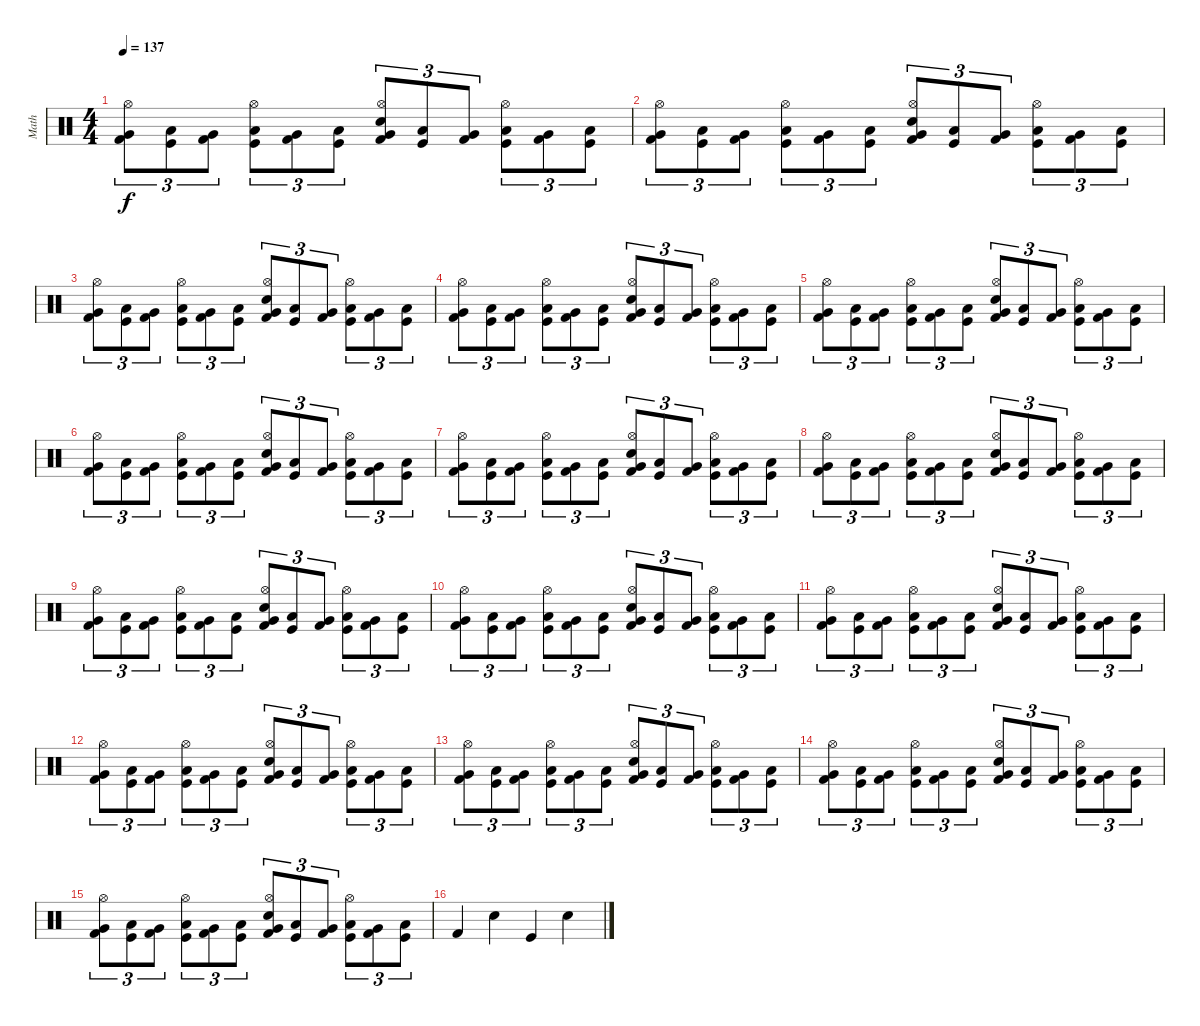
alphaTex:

\track ("Math" "Math") {instrument percussion}
\staff {score}
\articulation defaults
\ts (4 4)
\tempo 137
\clef neutral
\ks c
("Kick (hit) 2" "Very Low Tom (hit)" "Hi-Hat (open)").8{tu (3 2) dy f} ("Kick (hit)" "Low Tom (hit)").8{tu (3 2)} ("Kick (hit) 2" "Very Low Tom (hit)").8{tu (3 2)} ("Kick (hit)" "Low Tom (hit)" "Hi-Hat (open)").8{tu (3 2)} ("Kick (hit) 2" "Very Low Tom (hit)").8{tu (3 2)} ("Kick (hit)" "Low Tom (hit)").8{tu (3 2)} ("Kick (hit) 2" "Very Low Tom (hit)" "Snare (hit) 2" "Hi-Hat (open)").8{tu (3 2)} ("Kick (hit)" "Low Tom (hit)").8{tu (3 2)} ("Kick (hit) 2" "Very Low Tom (hit)").8{tu (3 2)} ("Kick (hit)" "Low Tom (hit)" "Hi-Hat (open)").8{tu (3 2)} ("Kick (hit) 2" "Very Low Tom (hit)").8{tu (3 2)} ("Kick (hit)" "Low Tom (hit)").8{tu (3 2)} |
("Kick (hit) 2" "Very Low Tom (hit)" "Hi-Hat (open)").8{tu (3 2)} ("Kick (hit)" "Low Tom (hit)").8{tu (3 2)} ("Kick (hit) 2" "Very Low Tom (hit)").8{tu (3 2)} ("Kick (hit)" "Low Tom (hit)" "Hi-Hat (open)").8{tu (3 2)} ("Kick (hit) 2" "Very Low Tom (hit)").8{tu (3 2)} ("Kick (hit)" "Low Tom (hit)").8{tu (3 2)} ("Kick (hit) 2" "Very Low Tom (hit)" "Snare (hit) 2" "Hi-Hat (open)").8{tu (3 2)} ("Kick (hit)" "Low Tom (hit)").8{tu (3 2)} ("Kick (hit) 2" "Very Low Tom (hit)").8{tu (3 2)} ("Kick (hit)" "Low Tom (hit)" "Hi-Hat (open)").8{tu (3 2)} ("Kick (hit) 2" "Very Low Tom (hit)").8{tu (3 2)} ("Kick (hit)" "Low Tom (hit)").8{tu (3 2)} |
("Kick (hit) 2" "Very Low Tom (hit)" "Hi-Hat (open)").8{tu (3 2)} ("Kick (hit)" "Low Tom (hit)").8{tu (3 2)} ("Kick (hit) 2" "Very Low Tom (hit)").8{tu (3 2)} ("Kick (hit)" "Low Tom (hit)" "Hi-Hat (open)").8{tu (3 2)} ("Kick (hit) 2" "Very Low Tom (hit)").8{tu (3 2)} ("Kick (hit)" "Low Tom (hit)").8{tu (3 2)} ("Kick (hit) 2" "Very Low Tom (hit)" "Snare (hit) 2" "Hi-Hat (open)").8{tu (3 2)} ("Kick (hit)" "Low Tom (hit)").8{tu (3 2)} ("Kick (hit) 2" "Very Low Tom (hit)").8{tu (3 2)} ("Kick (hit)" "Low Tom (hit)" "Hi-Hat (open)").8{tu (3 2)} ("Kick (hit) 2" "Very Low Tom (hit)").8{tu (3 2)} ("Kick (hit)" "Low Tom (hit)").8{tu (3 2)} |
("Kick (hit) 2" "Very Low Tom (hit)" "Hi-Hat (open)").8{tu (3 2)} ("Kick (hit)" "Low Tom (hit)").8{tu (3 2)} ("Kick (hit) 2" "Very Low Tom (hit)").8{tu (3 2)} ("Kick (hit)" "Low Tom (hit)" "Hi-Hat (open)").8{tu (3 2)} ("Kick (hit) 2" "Very Low Tom (hit)").8{tu (3 2)} ("Kick (hit)" "Low Tom (hit)").8{tu (3 2)} ("Kick (hit) 2" "Very Low Tom (hit)" "Snare (hit) 2" "Hi-Hat (open)").8{tu (3 2)} ("Kick (hit)" "Low Tom (hit)").8{tu (3 2)} ("Kick (hit) 2" "Very Low Tom (hit)").8{tu (3 2)} ("Kick (hit)" "Low Tom (hit)" "Hi-Hat (open)").8{tu (3 2)} ("Kick (hit) 2" "Very Low Tom (hit)").8{tu (3 2)} ("Kick (hit)" "Low Tom (hit)").8{tu (3 2)} |
("Kick (hit) 2" "Very Low Tom (hit)" "Hi-Hat (open)").8{tu (3 2)} ("Kick (hit)" "Low Tom (hit)").8{tu (3 2)} ("Kick (hit) 2" "Very Low Tom (hit)").8{tu (3 2)} ("Kick (hit)" "Low Tom (hit)" "Hi-Hat (open)").8{tu (3 2)} ("Kick (hit) 2" "Very Low Tom (hit)").8{tu (3 2)} ("Kick (hit)" "Low Tom (hit)").8{tu (3 2)} ("Kick (hit) 2" "Very Low Tom (hit)" "Snare (hit) 2" "Hi-Hat (open)").8{tu (3 2)} ("Kick (hit)" "Low Tom (hit)").8{tu (3 2)} ("Kick (hit) 2" "Very Low Tom (hit)").8{tu (3 2)} ("Kick (hit)" "Low Tom (hit)" "Hi-Hat (open)").8{tu (3 2)} ("Kick (hit) 2" "Very Low Tom (hit)").8{tu (3 2)} ("Kick (hit)" "Low Tom (hit)").8{tu (3 2)} |
("Kick (hit) 2" "Very Low Tom (hit)" "Hi-Hat (open)").8{tu (3 2)} ("Kick (hit)" "Low Tom (hit)").8{tu (3 2)} ("Kick (hit) 2" "Very Low Tom (hit)").8{tu (3 2)} ("Kick (hit)" "Low Tom (hit)" "Hi-Hat (open)").8{tu (3 2)} ("Kick (hit) 2" "Very Low Tom (hit)").8{tu (3 2)} ("Kick (hit)" "Low Tom (hit)").8{tu (3 2)} ("Kick (hit) 2" "Very Low Tom (hit)" "Snare (hit) 2" "Hi-Hat (open)").8{tu (3 2)} ("Kick (hit)" "Low Tom (hit)").8{tu (3 2)} ("Kick (hit) 2" "Very Low Tom (hit)").8{tu (3 2)} ("Kick (hit)" "Low Tom (hit)" "Hi-Hat (open)").8{tu (3 2)} ("Kick (hit) 2" "Very Low Tom (hit)").8{tu (3 2)} ("Kick (hit)" "Low Tom (hit)").8{tu (3 2)} |
("Kick (hit) 2" "Very Low Tom (hit)" "Hi-Hat (open)").8{tu (3 2)} ("Kick (hit)" "Low Tom (hit)").8{tu (3 2)} ("Kick (hit) 2" "Very Low Tom (hit)").8{tu (3 2)} ("Kick (hit)" "Low Tom (hit)" "Hi-Hat (open)").8{tu (3 2)} ("Kick (hit) 2" "Very Low Tom (hit)").8{tu (3 2)} ("Kick (hit)" "Low Tom (hit)").8{tu (3 2)} ("Kick (hit) 2" "Very Low Tom (hit)" "Snare (hit) 2" "Hi-Hat (open)").8{tu (3 2)} ("Kick (hit)" "Low Tom (hit)").8{tu (3 2)} ("Kick (hit) 2" "Very Low Tom (hit)").8{tu (3 2)} ("Kick (hit)" "Low Tom (hit)" "Hi-Hat (open)").8{tu (3 2)} ("Kick (hit) 2" "Very Low Tom (hit)").8{tu (3 2)} ("Kick (hit)" "Low Tom (hit)").8{tu (3 2)} |
("Kick (hit) 2" "Very Low Tom (hit)" "Hi-Hat (open)").8{tu (3 2)} ("Kick (hit)" "Low Tom (hit)").8{tu (3 2)} ("Kick (hit) 2" "Very Low Tom (hit)").8{tu (3 2)} ("Kick (hit)" "Low Tom (hit)" "Hi-Hat (open)").8{tu (3 2)} ("Kick (hit) 2" "Very Low Tom (hit)").8{tu (3 2)} ("Kick (hit)" "Low Tom (hit)").8{tu (3 2)} ("Kick (hit) 2" "Very Low Tom (hit)" "Snare (hit) 2" "Hi-Hat (open)").8{tu (3 2)} ("Kick (hit)" "Low Tom (hit)").8{tu (3 2)} ("Kick (hit) 2" "Very Low Tom (hit)").8{tu (3 2)} ("Kick (hit)" "Low Tom (hit)" "Hi-Hat (open)").8{tu (3 2)} ("Kick (hit) 2" "Very Low Tom (hit)").8{tu (3 2)} ("Kick (hit)" "Low Tom (hit)").8{tu (3 2)} |
("Kick (hit) 2" "Very Low Tom (hit)" "Hi-Hat (open)").8{tu (3 2)} ("Kick (hit)" "Low Tom (hit)").8{tu (3 2)} ("Kick (hit) 2" "Very Low Tom (hit)").8{tu (3 2)} ("Kick (hit)" "Low Tom (hit)" "Hi-Hat (open)").8{tu (3 2)} ("Kick (hit) 2" "Very Low Tom (hit)").8{tu (3 2)} ("Kick (hit)" "Low Tom (hit)").8{tu (3 2)} ("Kick (hit) 2" "Very Low Tom (hit)" "Snare (hit) 2" "Hi-Hat (open)").8{tu (3 2)} ("Kick (hit)" "Low Tom (hit)").8{tu (3 2)} ("Kick (hit) 2" "Very Low Tom (hit)").8{tu (3 2)} ("Kick (hit)" "Low Tom (hit)" "Hi-Hat (open)").8{tu (3 2)} ("Kick (hit) 2" "Very Low Tom (hit)").8{tu (3 2)} ("Kick (hit)" "Low Tom (hit)").8{tu (3 2)} |
("Kick (hit) 2" "Very Low Tom (hit)" "Hi-Hat (open)").8{tu (3 2)} ("Kick (hit)" "Low Tom (hit)").8{tu (3 2)} ("Kick (hit) 2" "Very Low Tom (hit)").8{tu (3 2)} ("Kick (hit)" "Low Tom (hit)" "Hi-Hat (open)").8{tu (3 2)} ("Kick (hit) 2" "Very Low Tom (hit)").8{tu (3 2)} ("Kick (hit)" "Low Tom (hit)").8{tu (3 2)} ("Kick (hit) 2" "Very Low Tom (hit)" "Snare (hit) 2" "Hi-Hat (open)").8{tu (3 2)} ("Kick (hit)" "Low Tom (hit)").8{tu (3 2)} ("Kick (hit) 2" "Very Low Tom (hit)").8{tu (3 2)} ("Kick (hit)" "Low Tom (hit)" "Hi-Hat (open)").8{tu (3 2)} ("Kick (hit) 2" "Very Low Tom (hit)").8{tu (3 2)} ("Kick (hit)" "Low Tom (hit)").8{tu (3 2)} |
("Kick (hit) 2" "Very Low Tom (hit)" "Hi-Hat (open)").8{tu (3 2)} ("Kick (hit)" "Low Tom (hit)").8{tu (3 2)} ("Kick (hit) 2" "Very Low Tom (hit)").8{tu (3 2)} ("Kick (hit)" "Low Tom (hit)" "Hi-Hat (open)").8{tu (3 2)} ("Kick (hit) 2" "Very Low Tom (hit)").8{tu (3 2)} ("Kick (hit)" "Low Tom (hit)").8{tu (3 2)} ("Kick (hit) 2" "Very Low Tom (hit)" "Snare (hit) 2" "Hi-Hat (open)").8{tu (3 2)} ("Kick (hit)" "Low Tom (hit)").8{tu (3 2)} ("Kick (hit) 2" "Very Low Tom (hit)").8{tu (3 2)} ("Kick (hit)" "Low Tom (hit)" "Hi-Hat (open)").8{tu (3 2)} ("Kick (hit) 2" "Very Low Tom (hit)").8{tu (3 2)} ("Kick (hit)" "Low Tom (hit)").8{tu (3 2)} |
("Kick (hit) 2" "Very Low Tom (hit)" "Hi-Hat (open)").8{tu (3 2)} ("Kick (hit)" "Low Tom (hit)").8{tu (3 2)} ("Kick (hit) 2" "Very Low Tom (hit)").8{tu (3 2)} ("Kick (hit)" "Low Tom (hit)" "Hi-Hat (open)").8{tu (3 2)} ("Kick (hit) 2" "Very Low Tom (hit)").8{tu (3 2)} ("Kick (hit)" "Low Tom (hit)").8{tu (3 2)} ("Kick (hit) 2" "Very Low Tom (hit)" "Snare (hit) 2" "Hi-Hat (open)").8{tu (3 2)} ("Kick (hit)" "Low Tom (hit)").8{tu (3 2)} ("Kick (hit) 2" "Very Low Tom (hit)").8{tu (3 2)} ("Kick (hit)" "Low Tom (hit)" "Hi-Hat (open)").8{tu (3 2)} ("Kick (hit) 2" "Very Low Tom (hit)").8{tu (3 2)} ("Kick (hit)" "Low Tom (hit)").8{tu (3 2)} |
("Kick (hit) 2" "Very Low Tom (hit)" "Hi-Hat (open)").8{tu (3 2)} ("Kick (hit)" "Low Tom (hit)").8{tu (3 2)} ("Kick (hit) 2" "Very Low Tom (hit)").8{tu (3 2)} ("Kick (hit)" "Low Tom (hit)" "Hi-Hat (open)").8{tu (3 2)} ("Kick (hit) 2" "Very Low Tom (hit)").8{tu (3 2)} ("Kick (hit)" "Low Tom (hit)").8{tu (3 2)} ("Kick (hit) 2" "Very Low Tom (hit)" "Snare (hit) 2" "Hi-Hat (open)").8{tu (3 2)} ("Kick (hit)" "Low Tom (hit)").8{tu (3 2)} ("Kick (hit) 2" "Very Low Tom (hit)").8{tu (3 2)} ("Kick (hit)" "Low Tom (hit)" "Hi-Hat (open)").8{tu (3 2)} ("Kick (hit) 2" "Very Low Tom (hit)").8{tu (3 2)} ("Kick (hit)" "Low Tom (hit)").8{tu (3 2)} |
("Kick (hit) 2" "Very Low Tom (hit)" "Hi-Hat (open)").8{tu (3 2)} ("Kick (hit)" "Low Tom (hit)").8{tu (3 2)} ("Kick (hit) 2" "Very Low Tom (hit)").8{tu (3 2)} ("Kick (hit)" "Low Tom (hit)" "Hi-Hat (open)").8{tu (3 2)} ("Kick (hit) 2" "Very Low Tom (hit)").8{tu (3 2)} ("Kick (hit)" "Low Tom (hit)").8{tu (3 2)} ("Kick (hit) 2" "Very Low Tom (hit)" "Snare (hit) 2" "Hi-Hat (open)").8{tu (3 2)} ("Kick (hit)" "Low Tom (hit)").8{tu (3 2)} ("Kick (hit) 2" "Very Low Tom (hit)").8{tu (3 2)} ("Kick (hit)" "Low Tom (hit)" "Hi-Hat (open)").8{tu (3 2)} ("Kick (hit) 2" "Very Low Tom (hit)").8{tu (3 2)} ("Kick (hit)" "Low Tom (hit)").8{tu (3 2)} |
("Kick (hit) 2" "Very Low Tom (hit)" "Hi-Hat (open)").8{tu (3 2)} ("Kick (hit)" "Low Tom (hit)").8{tu (3 2)} ("Kick (hit) 2" "Very Low Tom (hit)").8{tu (3 2)} ("Kick (hit)" "Low Tom (hit)" "Hi-Hat (open)").8{tu (3 2)} ("Kick (hit) 2" "Very Low Tom (hit)").8{tu (3 2)} ("Kick (hit)" "Low Tom (hit)").8{tu (3 2)} ("Kick (hit) 2" "Very Low Tom (hit)" "Snare (hit) 2" "Hi-Hat (open)").8{tu (3 2)} ("Kick (hit)" "Low Tom (hit)").8{tu (3 2)} ("Kick (hit) 2" "Very Low Tom (hit)").8{tu (3 2)} ("Kick (hit)" "Low Tom (hit)" "Hi-Hat (open)").8{tu (3 2)} ("Kick (hit) 2" "Very Low Tom (hit)").8{tu (3 2)} ("Kick (hit)" "Low Tom (hit)").8{tu (3 2)} |
"Kick (hit) 2".4 "Snare (hit) 2".4 "Kick (hit)".4 "Snare (hit) 2".4
